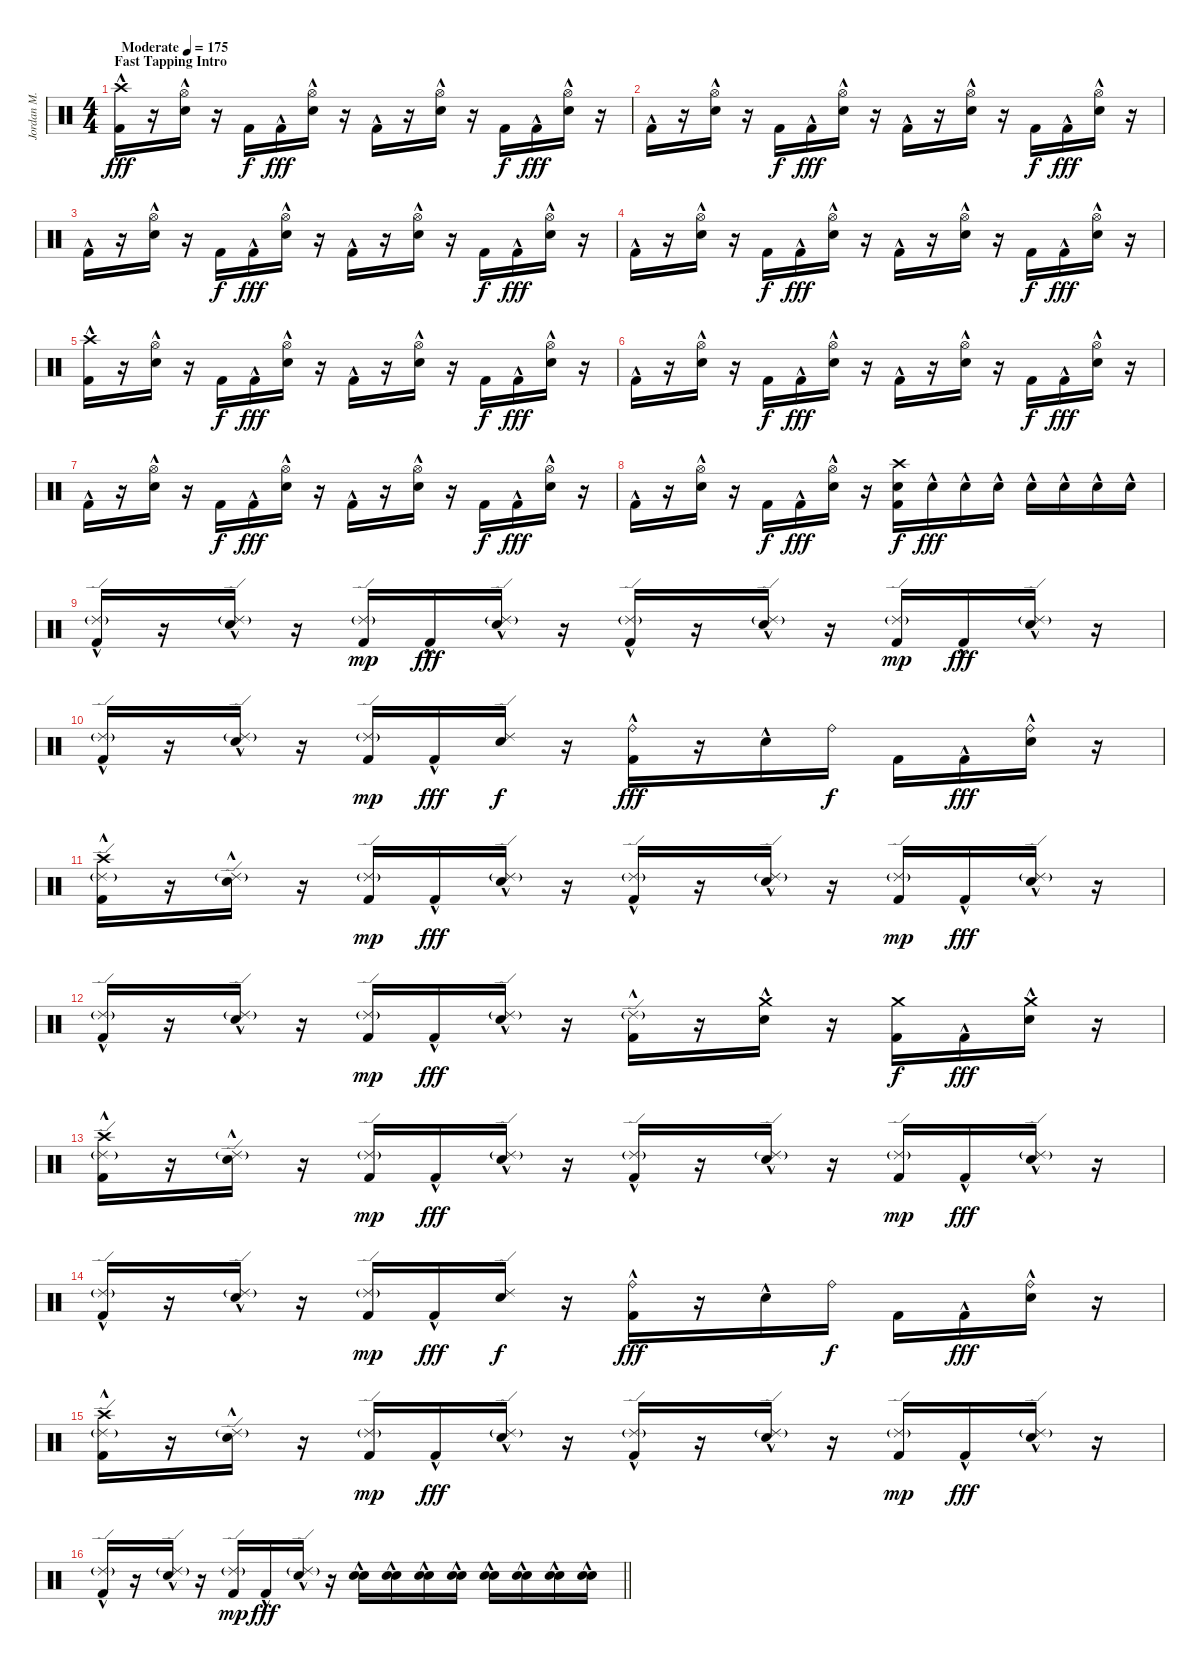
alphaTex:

\track ("Jordan M." "Jordan M.") {instrument percussion}
\staff {score}
\articulation defaults
\ts (4 4)
\section ("" "Fast Tapping Intro")
\tempo (175 "Moderate")
\clef neutral
\ks c
("Crash high (hit)" "Kick (hit) 2"{hac}).16{dy fff} r.16 ("Hi-Hat (open)" "Electric Snare (hit)"{hac}).16 r.16 "Kick (hit) 2".16{dy f} "Kick (hit) 2"{hac}.16{dy fff} ("Hi-Hat (open)" "Electric Snare (hit)"{hac}).16 r.16 "Kick (hit) 2"{hac}.16 r.16 ("Hi-Hat (open)" "Electric Snare (hit)"{hac}).16 r.16 "Kick (hit) 2".16{dy f} "Kick (hit) 2"{hac}.16{dy fff} ("Hi-Hat (open)" "Electric Snare (hit)"{hac}).16 r.16 |
"Kick (hit) 2"{hac}.16 r.16 ("Hi-Hat (open)" "Electric Snare (hit)"{hac}).16 r.16 "Kick (hit) 2".16{dy f} "Kick (hit) 2"{hac}.16{dy fff} ("Hi-Hat (open)" "Electric Snare (hit)"{hac}).16 r.16 "Kick (hit) 2"{hac}.16 r.16 ("Hi-Hat (open)" "Electric Snare (hit)"{hac}).16 r.16 "Kick (hit) 2".16{dy f} "Kick (hit) 2"{hac}.16{dy fff} ("Hi-Hat (open)" "Electric Snare (hit)"{hac}).16 r.16 |
"Kick (hit) 2"{hac}.16 r.16 ("Hi-Hat (open)" "Electric Snare (hit)"{hac}).16 r.16 "Kick (hit) 2".16{dy f} "Kick (hit) 2"{hac}.16{dy fff} ("Hi-Hat (open)" "Electric Snare (hit)"{hac}).16 r.16 "Kick (hit) 2"{hac}.16 r.16 ("Hi-Hat (open)" "Electric Snare (hit)"{hac}).16 r.16 "Kick (hit) 2".16{dy f} "Kick (hit) 2"{hac}.16{dy fff} ("Hi-Hat (open)" "Electric Snare (hit)"{hac}).16 r.16 |
"Kick (hit) 2"{hac}.16 r.16 ("Hi-Hat (open)" "Electric Snare (hit)"{hac}).16 r.16 "Kick (hit) 2".16{dy f} "Kick (hit) 2"{hac}.16{dy fff} ("Hi-Hat (open)" "Electric Snare (hit)"{hac}).16 r.16 "Kick (hit) 2"{hac}.16 r.16 ("Hi-Hat (open)" "Electric Snare (hit)"{hac}).16 r.16 "Kick (hit) 2".16{dy f} "Kick (hit) 2"{hac}.16{dy fff} ("Hi-Hat (open)" "Electric Snare (hit)"{hac}).16 r.16 |
("Crash high (hit)" "Kick (hit) 2"{hac}).16 r.16 ("Hi-Hat (open)" "Electric Snare (hit)"{hac}).16 r.16 "Kick (hit) 2".16{dy f} "Kick (hit) 2"{hac}.16{dy fff} ("Hi-Hat (open)" "Electric Snare (hit)"{hac}).16 r.16 "Kick (hit) 2"{hac}.16 r.16 ("Hi-Hat (open)" "Electric Snare (hit)"{hac}).16 r.16 "Kick (hit) 2".16{dy f} "Kick (hit) 2"{hac}.16{dy fff} ("Hi-Hat (open)" "Electric Snare (hit)"{hac}).16 r.16 |
"Kick (hit) 2"{hac}.16 r.16 ("Hi-Hat (open)" "Electric Snare (hit)"{hac}).16 r.16 "Kick (hit) 2".16{dy f} "Kick (hit) 2"{hac}.16{dy fff} ("Hi-Hat (open)" "Electric Snare (hit)"{hac}).16 r.16 "Kick (hit) 2"{hac}.16 r.16 ("Hi-Hat (open)" "Electric Snare (hit)"{hac}).16 r.16 "Kick (hit) 2".16{dy f} "Kick (hit) 2"{hac}.16{dy fff} ("Hi-Hat (open)" "Electric Snare (hit)"{hac}).16 r.16 |
"Kick (hit) 2"{hac}.16 r.16 ("Hi-Hat (open)" "Electric Snare (hit)"{hac}).16 r.16 "Kick (hit) 2".16{dy f} "Kick (hit) 2"{hac}.16{dy fff} ("Hi-Hat (open)" "Electric Snare (hit)"{hac}).16 r.16 "Kick (hit) 2"{hac}.16 r.16 ("Hi-Hat (open)" "Electric Snare (hit)"{hac}).16 r.16 "Kick (hit) 2".16{dy f} "Kick (hit) 2"{hac}.16{dy fff} ("Hi-Hat (open)" "Electric Snare (hit)"{hac}).16 r.16 |
"Kick (hit) 2"{hac}.16 r.16 ("Hi-Hat (open)" "Electric Snare (hit)"{hac}).16 r.16 "Kick (hit) 2".16{dy f} "Kick (hit) 2"{hac}.16{dy fff} ("Hi-Hat (open)" "Electric Snare (hit)"{hac}).16 r.16 ("Electric Snare (hit)" "Crash high (hit)" "Kick (hit) 2").16{dy f} "Electric Snare (hit)"{hac}.16{dy fff} "Electric Snare (hit)"{hac}.16 "Electric Snare (hit)"{hac}.16 "Electric Snare (hit)"{hac}.16 "Electric Snare (hit)"{hac}.16 "Electric Snare (hit)"{hac}.16 "Electric Snare (hit)"{hac}.16 |
("Ride (edge) 2"{g} "Kick (hit) 2"{hac}).16 r.16 ("Ride (edge) 2"{g} "Electric Snare (hit)"{hac}).16 r.16 ("Ride (edge) 2"{g} "Kick (hit) 2").16{dy mp} "Kick (hit) 2"{hac}.16{dy fff} ("Ride (edge) 2"{g} "Electric Snare (hit)"{hac}).16 r.16 ("Ride (edge) 2"{g} "Kick (hit) 2"{hac}).16 r.16 ("Ride (edge) 2"{g} "Electric Snare (hit)"{hac}).16 r.16 ("Ride (edge) 2"{g} "Kick (hit) 2").16{dy mp} "Kick (hit) 2"{hac}.16{dy fff} ("Ride (edge) 2"{g} "Electric Snare (hit)"{hac}).16 r.16 |
("Ride (edge) 2"{g} "Kick (hit) 2"{hac}).16 r.16 ("Ride (edge) 2"{g} "Electric Snare (hit)"{hac}).16 r.16 ("Ride (edge) 2"{g} "Kick (hit) 2").16{dy mp} "Kick (hit) 2"{hac}.16{dy fff} ("Electric Snare (hit)" "Ride (edge) 2").16{dy f} r.16 ("Ride (bell)" "Kick (hit) 2"{hac}).16{dy fff} r.16 "Electric Snare (hit)"{hac}.16 "Ride (bell)".16{dy f} "Kick (hit) 2".16 "Kick (hit) 2"{hac}.16{dy fff} ("Ride (bell)" "Electric Snare (hit)"{hac}).16 r.16 |
("Crash high (hit)" "Ride (edge) 2"{g} "Kick (hit) 2"{hac}).16 r.16 ("Ride (edge) 2"{g} "Electric Snare (hit)"{hac}).16 r.16 ("Ride (edge) 2"{g} "Kick (hit) 2").16{dy mp} "Kick (hit) 2"{hac}.16{dy fff} ("Ride (edge) 2"{g} "Electric Snare (hit)"{hac}).16 r.16 ("Ride (edge) 2"{g} "Kick (hit) 2"{hac}).16 r.16 ("Ride (edge) 2"{g} "Electric Snare (hit)"{hac}).16 r.16 ("Ride (edge) 2"{g} "Kick (hit) 2").16{dy mp} "Kick (hit) 2"{hac}.16{dy fff} ("Ride (edge) 2"{g} "Electric Snare (hit)"{hac}).16 r.16 |
("Ride (edge) 2"{g} "Kick (hit) 2"{hac}).16 r.16 ("Ride (edge) 2"{g} "Electric Snare (hit)"{hac}).16 r.16 ("Ride (edge) 2"{g} "Kick (hit) 2").16{dy mp} "Kick (hit) 2"{hac}.16{dy fff} ("Ride (edge) 2"{g} "Electric Snare (hit)"{hac}).16 r.16 ("Ride (edge) 2"{g} "Kick (hit) 2"{hac}).16 r.16 ("Crash medium (hit)" "Electric Snare (hit)"{hac}).16 r.16 ("Crash medium (hit)" "Kick (hit) 2").16{dy f} "Kick (hit) 2"{hac}.16{dy fff} ("Crash medium (hit)" "Electric Snare (hit)"{hac}).16 r.16 |
("Crash high (hit)" "Ride (edge) 2"{g} "Kick (hit) 2"{hac}).16 r.16 ("Ride (edge) 2"{g} "Electric Snare (hit)"{hac}).16 r.16 ("Ride (edge) 2"{g} "Kick (hit) 2").16{dy mp} "Kick (hit) 2"{hac}.16{dy fff} ("Ride (edge) 2"{g} "Electric Snare (hit)"{hac}).16 r.16 ("Ride (edge) 2"{g} "Kick (hit) 2"{hac}).16 r.16 ("Ride (edge) 2"{g} "Electric Snare (hit)"{hac}).16 r.16 ("Ride (edge) 2"{g} "Kick (hit) 2").16{dy mp} "Kick (hit) 2"{hac}.16{dy fff} ("Ride (edge) 2"{g} "Electric Snare (hit)"{hac}).16 r.16 |
("Ride (edge) 2"{g} "Kick (hit) 2"{hac}).16 r.16 ("Ride (edge) 2"{g} "Electric Snare (hit)"{hac}).16 r.16 ("Ride (edge) 2"{g} "Kick (hit) 2").16{dy mp} "Kick (hit) 2"{hac}.16{dy fff} ("Electric Snare (hit)" "Ride (edge) 2").16{dy f} r.16 ("Ride (bell)" "Kick (hit) 2"{hac}).16{dy fff} r.16 "Electric Snare (hit)"{hac}.16 "Ride (bell)".16{dy f} "Kick (hit) 2".16 "Kick (hit) 2"{hac}.16{dy fff} ("Ride (bell)" "Electric Snare (hit)"{hac}).16 r.16 |
("Crash high (hit)" "Ride (edge) 2"{g} "Kick (hit) 2"{hac}).16 r.16 ("Ride (edge) 2"{g} "Electric Snare (hit)"{hac}).16 r.16 ("Ride (edge) 2"{g} "Kick (hit) 2").16{dy mp} "Kick (hit) 2"{hac}.16{dy fff} ("Ride (edge) 2"{g} "Electric Snare (hit)"{hac}).16 r.16 ("Ride (edge) 2"{g} "Kick (hit) 2"{hac}).16 r.16 ("Ride (edge) 2"{g} "Electric Snare (hit)"{hac}).16 r.16 ("Ride (edge) 2"{g} "Kick (hit) 2").16{dy mp} "Kick (hit) 2"{hac}.16{dy fff} ("Ride (edge) 2"{g} "Electric Snare (hit)"{hac}).16 r.16 |
\barLineRight lightlight
("Ride (edge) 2"{g} "Kick (hit) 2"{hac}).16 r.16 ("Ride (edge) 2"{g} "Electric Snare (hit)"{hac}).16 r.16 ("Ride (edge) 2"{g} "Kick (hit) 2").16{dy mp} "Kick (hit) 2"{hac}.16{dy fff} ("Ride (edge) 2"{g} "Electric Snare (hit)"{hac}).16 r.16 ("Electric Snare (hit)"{hac} "Electric Snare (hit)"{hac}).16 ("Electric Snare (hit)"{hac} "Electric Snare (hit)"{hac}).16 ("Electric Snare (hit)"{hac} "Electric Snare (hit)"{hac}).16 ("Electric Snare (hit)"{hac} "Electric Snare (hit)"{hac}).16 ("Electric Snare (hit)"{hac} "Electric Snare (hit)"{hac}).16 ("Electric Snare (hit)"{hac} "Electric Snare (hit)"{hac}).16 ("Electric Snare (hit)"{hac} "Electric Snare (hit)"{hac}).16 ("Electric Snare (hit)"{hac} "Electric Snare (hit)"{hac}).16
